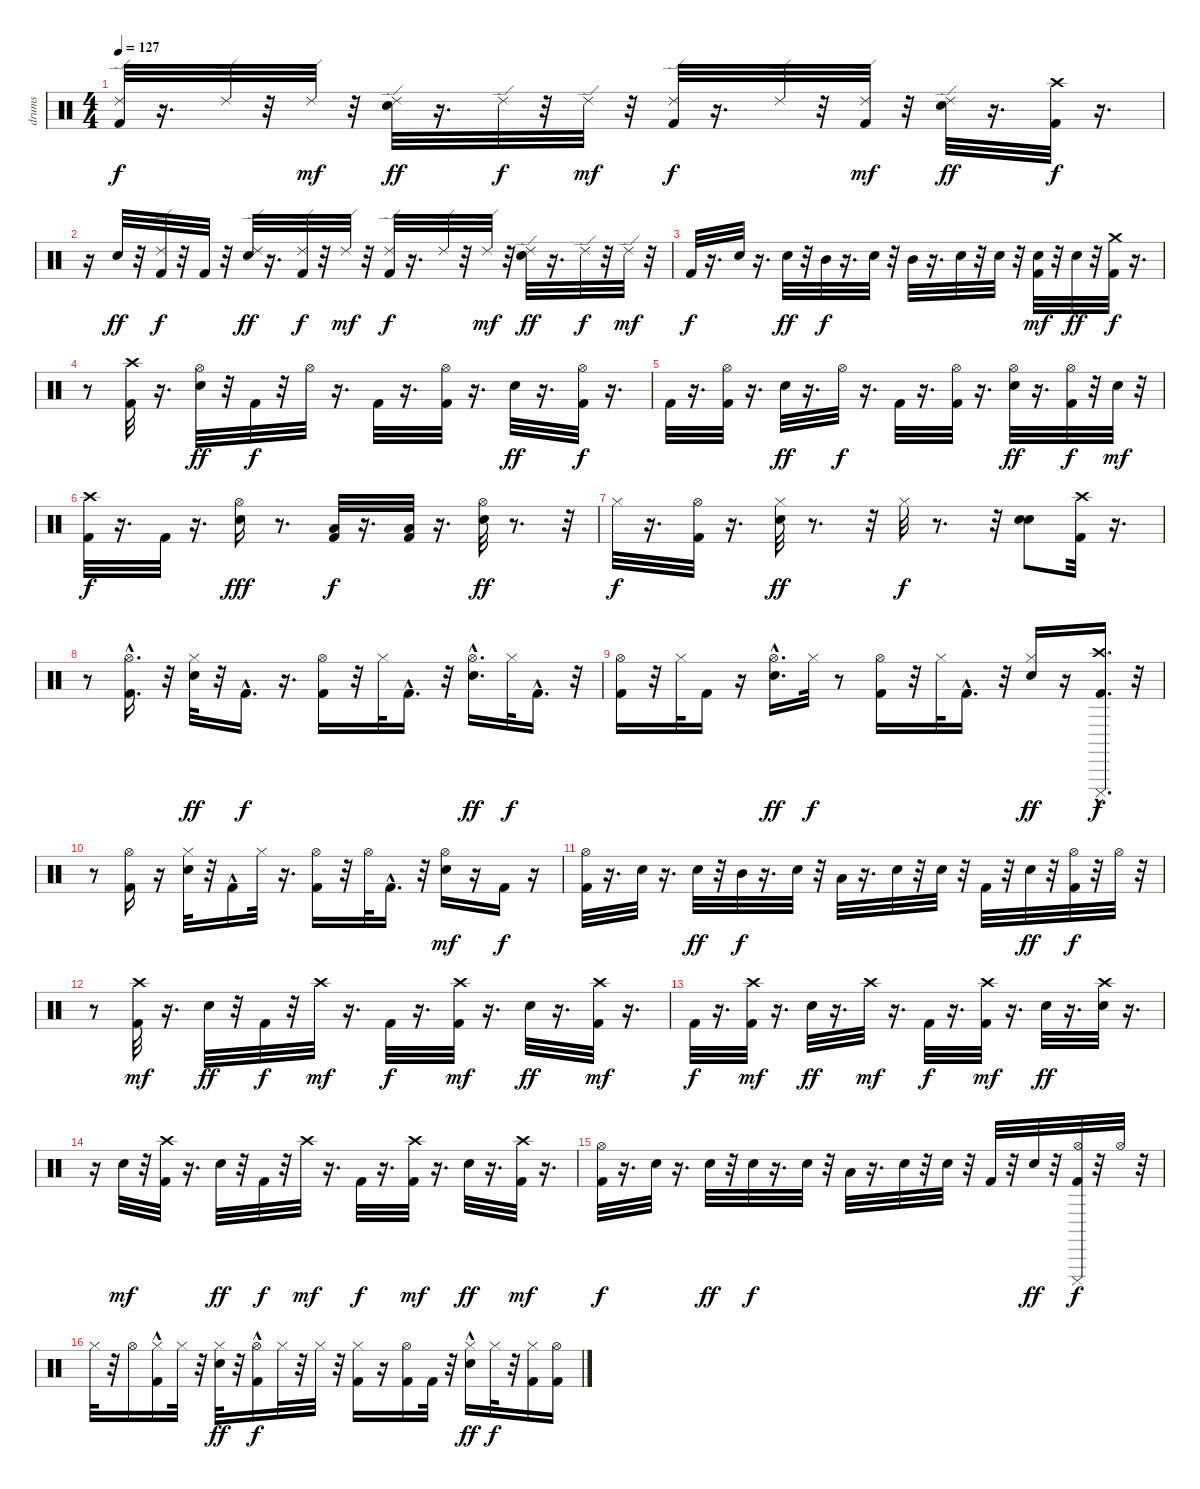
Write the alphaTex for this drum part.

\track ("drums" "drums") {instrument percussion}
\staff {score}
\articulation defaults
\ts (4 4)
\tempo 127
\clef neutral
\ks c
("Ride (edge) 2" "Kick (hit) 2").32{dy f} r.16{d} "Ride (edge) 2".32 r.32 "Ride (edge) 2".32{dy mf} r.32 ("Ride (edge) 2" "Electric Snare (hit)").32{dy ff} r.16{d} "Ride (edge) 2".32{dy f} r.32 "Ride (edge) 2".32{dy mf} r.32 ("Ride (edge) 2" "Kick (hit) 2").32{dy f} r.16{d} "Ride (edge) 2".32 r.32 ("Ride (edge) 2" "Kick (hit) 2").32{dy mf} r.32 ("Ride (edge) 2" "Electric Snare (hit)").32{dy ff} r.16{d} ("Crash high (hit)" "Kick (hit) 2").32{dy f} r.16{d} |
r.16 "Electric Snare (hit)".32{dy ff} r.32 ("Ride (edge) 2" "Kick (hit) 2").32{dy f} r.32 "Kick (hit) 2".32 r.32 ("Ride (edge) 2" "Electric Snare (hit)").32{dy ff} r.16{d} ("Kick (hit) 2" "Ride (edge) 2").32{dy f} r.32 "Ride (edge) 2".32{dy mf} r.32 ("Ride (edge) 2" "Kick (hit) 2").32{dy f} r.16{d} "Ride (edge) 2".32 r.32 "Ride (edge) 2".32{dy mf} r.32 ("Ride (edge) 2" "Electric Snare (hit)").32{dy ff} r.16{d} "Ride (edge) 2".32{dy f} r.32 "Ride (edge) 2".32{dy mf} r.32 |
"Kick (hit) 2".32{dy f} r.16{d} "Electric Snare (hit)".32 r.16{d} "Electric Snare (hit)".32{dy ff} r.32 "Mid Tom (hit)".32{dy f} r.16{d} "Electric Snare (hit)".32 r.32 "Mid Tom (hit)".32 r.16{d} "Electric Snare (hit)".32 r.32 "Electric Snare (hit)".32 r.32 ("Electric Snare (hit)" "Kick (hit) 2").32{dy mf} r.32 "Electric Snare (hit)".32{dy ff} r.32 ("Kick (hit) 2" "Crash medium (hit)").32{dy f} r.16{d} |
r.8 ("Crash high (hit)" "Kick (hit) 2").32 r.16{d} ("Hi-Hat (open)" "Electric Snare (hit)").32{dy ff} r.32 "Kick (hit) 2".32{dy f} r.32 "Hi-Hat (open)".32 r.16{d} "Kick (hit) 2".32 r.16{d} ("Hi-Hat (open)" "Kick (hit) 2").32 r.16{d} "Electric Snare (hit)".32{dy ff} r.16{d} ("Hi-Hat (open)" "Kick (hit) 2").32{dy f} r.16{d} |
"Kick (hit) 2".32 r.16{d} ("Kick (hit) 2" "Hi-Hat (open)").32 r.16{d} "Electric Snare (hit)".32{dy ff} r.16{d} "Hi-Hat (open)".32{dy f} r.16{d} "Kick (hit) 2".32 r.16{d} ("Kick (hit) 2" "Hi-Hat (open)").32 r.16{d} ("Electric Snare (hit)" "Hi-Hat (open)").32{dy ff} r.16{d} ("Hi-Hat (open)" "Kick (hit) 2").32{dy f} r.32 "Electric Snare (hit)".32{dy mf} r.32 |
("Kick (hit) 2" "Crash high (hit)").32{dy f} r.16{d} "Kick (hit) 2".32 r.16{d} ("Electric Snare (hit)" "Hi-Hat (open)").16{dy fff} r.8{d} ("Low Floor Tom (hit)" "Kick (hit) 2").32{dy f} r.16{d} ("Low Floor Tom (hit)" "Kick (hit) 2").32 r.16{d} ("Electric Snare (hit)" "Hi-Hat (open)").32{dy ff} r.8{d} r.32 |
"Hi-Hat (closed)".32{dy f} r.16{d} ("Hi-Hat (open)" "Kick (hit) 2").32 r.16{d} ("Hi-Hat (closed)" "Electric Snare (hit)").32{dy ff} r.8{d} r.32 "Hi-Hat (closed)".32{dy f} r.8{d} r.32 ("Electric Snare (hit)" "Electric Snare (hit)").8 ("Kick (hit) 2" "Crash high (hit)").32 r.16{d} |
r.8 ("Kick (hit) 2"{hac} "Hi-Hat (open)").16{d} r.32 ("Electric Snare (hit)" "Hi-Hat (closed)").32{dy ff} r.32 "Kick (hit) 2"{hac}.16{d dy f} r.16{d} ("Kick (hit) 2" "Hi-Hat (open)").16 r.32 "Hi-Hat (closed)".32 "Kick (hit) 2"{hac}.16{d} r.32 ("Electric Snare (hit)"{hac} "Hi-Hat (open)").16{d dy ff} "Hi-Hat (closed)".32{dy f} "Kick (hit) 2"{hac}.16{d} r.32 |
("Kick (hit) 2" "Hi-Hat (open)").16 r.32 "Hi-Hat (closed)".32 "Kick (hit) 2".16 r.16 ("Electric Snare (hit)"{hac} "Hi-Hat (open)").16{d dy ff} "Hi-Hat (closed)".32{dy f} r.8 ("Kick (hit) 2" "Hi-Hat (open)").16 r.32 "Hi-Hat (closed)".32 "Kick (hit) 2"{hac}.16{d} r.32 ("Electric Snare (hit)" "Hi-Hat (closed)").16{dy ff} r.16 ("Kick (hit) 2"{hac} "Crash high (hit)" "Cuica (mute)").16{d dy f} r.32 |
r.8 ("Kick (hit) 2" "Hi-Hat (open)").16 r.16 ("Electric Snare (hit)" "Hi-Hat (closed)").32 r.32 "Kick (hit) 2"{hac}.16 "Hi-Hat (closed)".32 r.16{d} ("Kick (hit) 2" "Hi-Hat (open)").16 r.32 "Hi-Hat (open)".32 "Kick (hit) 2"{hac}.16{d} r.32 ("Electric Snare (hit)" "Hi-Hat (open)").16{dy mf} r.16 "Kick (hit) 2".16{dy f} r.16 |
("Kick (hit) 2" "Hi-Hat (open)").32 r.16{d} "Electric Snare (hit)".32 r.16{d} "Electric Snare (hit)".32{dy ff} r.32 "Mid Tom (hit)".32{dy f} r.16{d} "Electric Snare (hit)".32 r.32 "Low Tom (hit)".32 r.16{d} "Electric Snare (hit)".32 r.32 "Electric Snare (hit)".32 r.32 "Kick (hit) 2".32 r.32 "Electric Snare (hit)".32{dy ff} r.32 ("Kick (hit) 2" "Hi-Hat (open)").32{dy f} r.32 "Hi-Hat (open)".32 r.32 |
r.8 ("Kick (hit) 2" "Crash high (hit)").32{dy mf} r.16{d} "Electric Snare (hit)".32{dy ff} r.32 "Kick (hit) 2".32{dy f} r.32 "Crash high (hit)".32{dy mf} r.16{d} "Kick (hit) 2".32{dy f} r.16{d} ("Kick (hit) 2" "Crash high (hit)").32{dy mf} r.16{d} "Electric Snare (hit)".32{dy ff} r.16{d} ("Kick (hit) 2" "Crash high (hit)").32{dy mf} r.16{d} |
"Kick (hit) 2".32{dy f} r.16{d} ("Kick (hit) 2" "Crash high (hit)").32{dy mf} r.16{d} "Electric Snare (hit)".32{dy ff} r.16{d} "Crash high (hit)".32{dy mf} r.16{d} "Kick (hit) 2".32{dy f} r.16{d} ("Kick (hit) 2" "Crash high (hit)").32{dy mf} r.16{d} "Electric Snare (hit)".32{dy ff} r.16{d} ("Crash high (hit)" "Electric Snare (hit)").32 r.16{d} |
r.16 "Electric Snare (hit)".32{dy mf} r.32 ("Kick (hit) 2" "Crash high (hit)").32 r.16{d} "Electric Snare (hit)".32{dy ff} r.32 "Kick (hit) 2".32{dy f} r.32 "Crash high (hit)".32{dy mf} r.16{d} "Kick (hit) 2".32{dy f} r.16{d} ("Kick (hit) 2" "Crash high (hit)").32{dy mf} r.16{d} "Electric Snare (hit)".32{dy ff} r.16{d} ("Kick (hit) 2" "Crash high (hit)").32{dy mf} r.16{d} |
("Kick (hit) 2" "Hi-Hat (open)").32{dy f} r.16{d} "Electric Snare (hit)".32 r.16{d} "Electric Snare (hit)".32{dy ff} r.32 "Electric Snare (hit)".32{dy f} r.16{d} "Electric Snare (hit)".32 r.32 "Low Tom (hit)".32 r.16{d} "Electric Snare (hit)".32 r.32 "Electric Snare (hit)".32 r.32 "Kick (hit) 2".32 r.32 "Electric Snare (hit)".32{dy ff} r.32 ("Kick (hit) 2" "Hi-Hat (open)" "Cuica (mute)").32{dy f} r.32 "Hi-Hat (open)".32 r.32 |
"Hi-Hat (closed)".32 r.32 "Hi-Hat (open)".16 ("Kick (hit) 2"{hac} "Hi-Hat (closed)").16 "Hi-Hat (closed)".32 r.32 ("Electric Snare (hit)" "Hi-Hat (closed)").32{dy ff} r.32 ("Kick (hit) 2"{hac} "Hi-Hat (open)").16{dy f} "Hi-Hat (closed)".32 r.32 "Hi-Hat (closed)".32 r.32 ("Kick (hit) 2" "Hi-Hat (closed)").16 r.16 ("Kick (hit) 2" "Hi-Hat (open)").16 "Kick (hit) 2".32 r.32 ("Electric Snare (hit)"{hac} "Hi-Hat (closed)").16{dy ff} "Hi-Hat (closed)".32{dy f} r.32 ("Kick (hit) 2" "Hi-Hat (closed)").16 ("Kick (hit) 2" "Hi-Hat (open)").16
